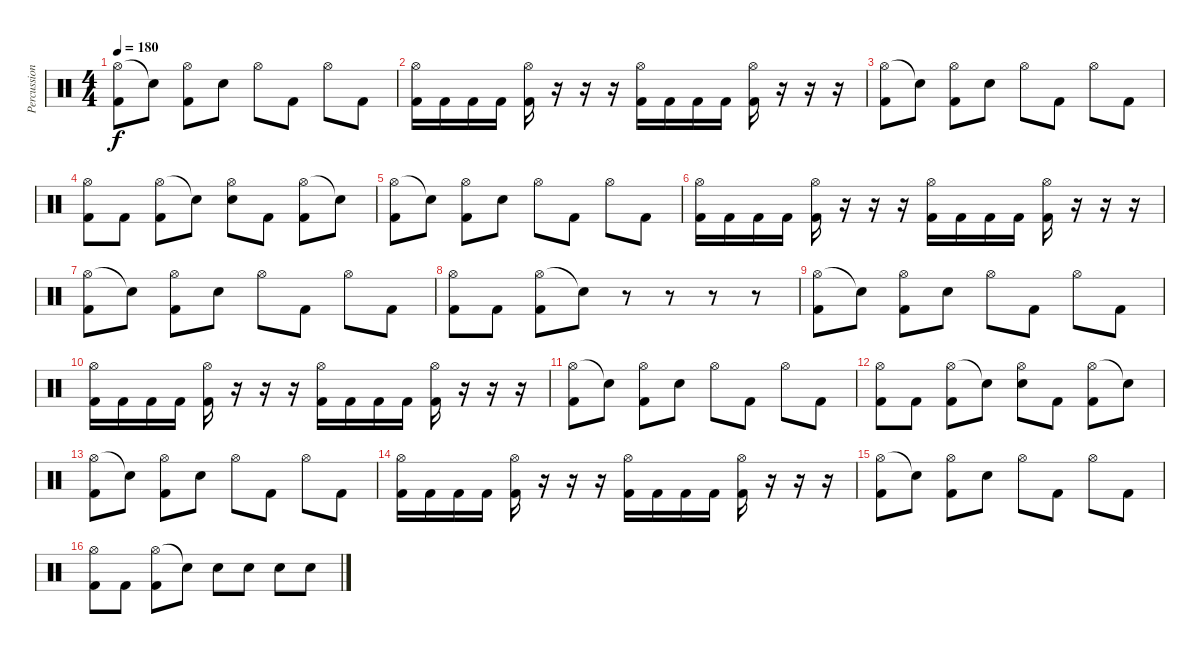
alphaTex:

\track ("Percussion" "Percussion") {instrument percussion}
\staff {score}
\articulation defaults
\ts (4 4)
\tempo 180
\clef neutral
\ks c
("Hi-Hat (open)" "Kick (hit) 2").8{dy f} "Snare (hit)"{t}.8 ("Hi-Hat (open)" "Kick (hit) 2").8 "Electric Snare (hit)".8 "Hi-Hat (open)".8 "Kick (hit) 2".8 "Hi-Hat (open)".8 "Kick (hit) 2".8 |
("Hi-Hat (open)" "Kick (hit) 2").16 "Kick (hit) 2".16 "Kick (hit) 2".16 "Kick (hit) 2".16 ("Hi-Hat (open)" "Kick (hit) 2").16 r.16 r.16 r.16 ("Hi-Hat (open)" "Kick (hit) 2").16 "Kick (hit) 2".16 "Kick (hit) 2".16 "Kick (hit) 2".16 ("Hi-Hat (open)" "Kick (hit) 2").16 r.16 r.16 r.16 |
("Hi-Hat (open)" "Kick (hit) 2").8 "Snare (hit)"{t}.8 ("Hi-Hat (open)" "Kick (hit) 2").8 "Electric Snare (hit)".8 "Hi-Hat (open)".8 "Kick (hit) 2".8 "Hi-Hat (open)".8 "Kick (hit) 2".8 |
("Hi-Hat (open)" "Kick (hit) 2").8 "Kick (hit) 2".8 ("Hi-Hat (open)" "Kick (hit) 2").8 "Snare (hit)"{t}.8 ("Hi-Hat (open)" "Electric Snare (hit)").8 "Kick (hit) 2".8 ("Hi-Hat (open)" "Kick (hit) 2").8 "Snare (hit)"{t}.8 |
("Hi-Hat (open)" "Kick (hit) 2").8 "Snare (hit)"{t}.8 ("Hi-Hat (open)" "Kick (hit) 2").8 "Electric Snare (hit)".8 "Hi-Hat (open)".8 "Kick (hit) 2".8 "Hi-Hat (open)".8 "Kick (hit) 2".8 |
("Hi-Hat (open)" "Kick (hit) 2").16 "Kick (hit) 2".16 "Kick (hit) 2".16 "Kick (hit) 2".16 ("Hi-Hat (open)" "Kick (hit) 2").16 r.16 r.16 r.16 ("Hi-Hat (open)" "Kick (hit) 2").16 "Kick (hit) 2".16 "Kick (hit) 2".16 "Kick (hit) 2".16 ("Hi-Hat (open)" "Kick (hit) 2").16 r.16 r.16 r.16 |
("Hi-Hat (open)" "Kick (hit) 2").8 "Snare (hit)"{t}.8 ("Hi-Hat (open)" "Kick (hit) 2").8 "Electric Snare (hit)".8 "Hi-Hat (open)".8 "Kick (hit) 2".8 "Hi-Hat (open)".8 "Kick (hit) 2".8 |
("Hi-Hat (open)" "Kick (hit) 2").8 "Kick (hit) 2".8 ("Hi-Hat (open)" "Kick (hit) 2").8 "Snare (hit)"{t}.8 r.8 r.8 r.8 r.8 |
("Hi-Hat (open)" "Kick (hit) 2").8 "Snare (hit)"{t}.8 ("Hi-Hat (open)" "Kick (hit) 2").8 "Electric Snare (hit)".8 "Hi-Hat (open)".8 "Kick (hit) 2".8 "Hi-Hat (open)".8 "Kick (hit) 2".8 |
("Hi-Hat (open)" "Kick (hit) 2").16 "Kick (hit) 2".16 "Kick (hit) 2".16 "Kick (hit) 2".16 ("Hi-Hat (open)" "Kick (hit) 2").16 r.16 r.16 r.16 ("Hi-Hat (open)" "Kick (hit) 2").16 "Kick (hit) 2".16 "Kick (hit) 2".16 "Kick (hit) 2".16 ("Hi-Hat (open)" "Kick (hit) 2").16 r.16 r.16 r.16 |
("Hi-Hat (open)" "Kick (hit) 2").8 "Snare (hit)"{t}.8 ("Hi-Hat (open)" "Kick (hit) 2").8 "Electric Snare (hit)".8 "Hi-Hat (open)".8 "Kick (hit) 2".8 "Hi-Hat (open)".8 "Kick (hit) 2".8 |
("Hi-Hat (open)" "Kick (hit) 2").8 "Kick (hit) 2".8 ("Hi-Hat (open)" "Kick (hit) 2").8 "Snare (hit)"{t}.8 ("Hi-Hat (open)" "Electric Snare (hit)").8 "Kick (hit) 2".8 ("Hi-Hat (open)" "Kick (hit) 2").8 "Snare (hit)"{t}.8 |
("Hi-Hat (open)" "Kick (hit) 2").8 "Snare (hit)"{t}.8 ("Hi-Hat (open)" "Kick (hit) 2").8 "Electric Snare (hit)".8 "Hi-Hat (open)".8 "Kick (hit) 2".8 "Hi-Hat (open)".8 "Kick (hit) 2".8 |
("Hi-Hat (open)" "Kick (hit) 2").16 "Kick (hit) 2".16 "Kick (hit) 2".16 "Kick (hit) 2".16 ("Hi-Hat (open)" "Kick (hit) 2").16 r.16 r.16 r.16 ("Hi-Hat (open)" "Kick (hit) 2").16 "Kick (hit) 2".16 "Kick (hit) 2".16 "Kick (hit) 2".16 ("Hi-Hat (open)" "Kick (hit) 2").16 r.16 r.16 r.16 |
("Hi-Hat (open)" "Kick (hit) 2").8 "Snare (hit)"{t}.8 ("Hi-Hat (open)" "Kick (hit) 2").8 "Electric Snare (hit)".8 "Hi-Hat (open)".8 "Kick (hit) 2".8 "Hi-Hat (open)".8 "Kick (hit) 2".8 |
("Hi-Hat (open)" "Kick (hit) 2").8 "Kick (hit) 2".8 ("Hi-Hat (open)" "Kick (hit) 2").8 "Snare (hit)"{t}.8 "Electric Snare (hit)".8 "Electric Snare (hit)".8 "Electric Snare (hit)".8 "Electric Snare (hit)".8
